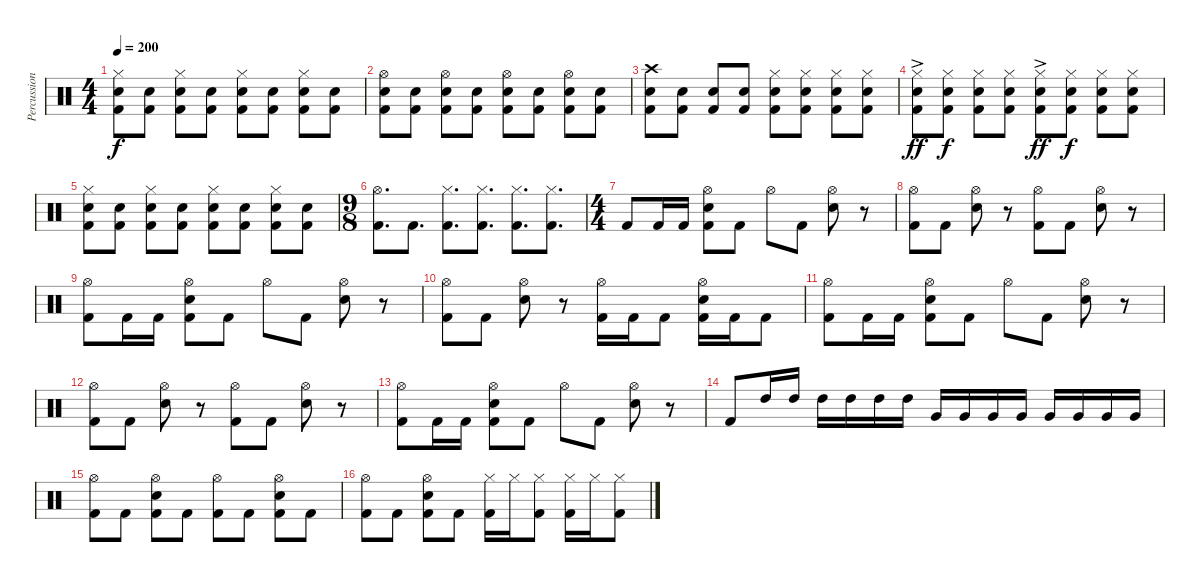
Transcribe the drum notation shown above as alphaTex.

\track ("Percussions" "Percussion") {instrument percussion}
\staff {score}
\articulation defaults
\ts (4 4)
\tempo 200
\clef neutral
\ks c
("Hi-Hat (closed)" "Electric Snare (hit)" "Kick (hit) 2").8{dy f} ("Electric Snare (hit)" "Kick (hit) 2").8 ("Hi-Hat (closed)" "Electric Snare (hit)" "Kick (hit) 2").8 ("Electric Snare (hit)" "Kick (hit) 2").8 ("Hi-Hat (closed)" "Electric Snare (hit)" "Kick (hit) 2").8 ("Electric Snare (hit)" "Kick (hit) 2").8 ("Hi-Hat (closed)" "Electric Snare (hit)" "Kick (hit) 2").8 ("Electric Snare (hit)" "Kick (hit) 2").8 |
("Hi-Hat (open)" "Electric Snare (hit)" "Kick (hit) 2").8 ("Electric Snare (hit)" "Kick (hit) 2").8 ("Hi-Hat (open)" "Electric Snare (hit)" "Kick (hit) 2").8 ("Electric Snare (hit)" "Kick (hit) 2").8 ("Hi-Hat (open)" "Electric Snare (hit)" "Kick (hit) 2").8 ("Electric Snare (hit)" "Kick (hit) 2").8 ("Hi-Hat (open)" "Electric Snare (hit)" "Kick (hit) 2").8 ("Electric Snare (hit)" "Kick (hit) 2").8 |
("Crash high (hit)" "Electric Snare (hit)" "Kick (hit) 2").8 ("Electric Snare (hit)" "Kick (hit) 2").8 ("Electric Snare (hit)" "Kick (hit) 2").8 ("Electric Snare (hit)" "Kick (hit) 2").8 ("Hi-Hat (closed)" "Electric Snare (hit)" "Kick (hit) 2").8 ("Hi-Hat (closed)" "Electric Snare (hit)" "Kick (hit) 2").8 ("Hi-Hat (closed)" "Electric Snare (hit)" "Kick (hit) 2").8 ("Hi-Hat (closed)" "Electric Snare (hit)" "Kick (hit) 2").8 |
("Hi-Hat (closed)"{ac} "Electric Snare (hit)" "Kick (hit) 2").8{dy ff} ("Hi-Hat (closed)" "Electric Snare (hit)" "Kick (hit) 2").8{dy f} ("Hi-Hat (closed)" "Electric Snare (hit)" "Kick (hit) 2").8 ("Hi-Hat (closed)" "Electric Snare (hit)" "Kick (hit) 2").8 ("Hi-Hat (closed)"{ac} "Electric Snare (hit)" "Kick (hit) 2").8{dy ff} ("Hi-Hat (closed)" "Electric Snare (hit)" "Kick (hit) 2").8{dy f} ("Hi-Hat (closed)" "Electric Snare (hit)" "Kick (hit) 2").8 ("Hi-Hat (closed)" "Electric Snare (hit)" "Kick (hit) 2").8 |
("Hi-Hat (closed)" "Electric Snare (hit)" "Kick (hit) 2").8 ("Electric Snare (hit)" "Kick (hit) 2").8 ("Hi-Hat (closed)" "Electric Snare (hit)" "Kick (hit) 2").8 ("Electric Snare (hit)" "Kick (hit) 2").8 ("Hi-Hat (closed)" "Electric Snare (hit)" "Kick (hit) 2").8 ("Electric Snare (hit)" "Kick (hit) 2").8 ("Hi-Hat (closed)" "Electric Snare (hit)" "Kick (hit) 2").8 ("Electric Snare (hit)" "Kick (hit) 2").8 |
\ts (9 8)
("Hi-Hat (open)" "Kick (hit) 2").8{d} "Kick (hit) 2".8{d} ("Hi-Hat (closed)" "Kick (hit) 2").8{d} ("Hi-Hat (closed)" "Kick (hit) 2").8{d} ("Hi-Hat (closed)" "Kick (hit) 2").8{d} ("Hi-Hat (closed)" "Kick (hit) 2").8{d} |
\ts (4 4)
"Kick (hit) 2".8 "Kick (hit) 2".16 "Kick (hit) 2".16 ("Hi-Hat (open)" "Electric Snare (hit)" "Kick (hit) 2").8 "Kick (hit) 2".8 "Hi-Hat (open)".8 "Kick (hit) 2".8 ("Hi-Hat (open)" "Electric Snare (hit)").8 r.8 |
("Hi-Hat (open)" "Kick (hit) 2").8 "Kick (hit) 2".8 ("Hi-Hat (open)" "Electric Snare (hit)").8 r.8 ("Hi-Hat (open)" "Kick (hit) 2").8 "Kick (hit) 2".8 ("Hi-Hat (open)" "Electric Snare (hit)").8 r.8 |
("Hi-Hat (open)" "Kick (hit) 2").8 "Kick (hit) 2".16 "Kick (hit) 2".16 ("Hi-Hat (open)" "Electric Snare (hit)" "Kick (hit) 2").8 "Kick (hit) 2".8 "Hi-Hat (open)".8 "Kick (hit) 2".8 ("Hi-Hat (open)" "Electric Snare (hit)").8 r.8 |
("Hi-Hat (open)" "Kick (hit) 2").8 "Kick (hit) 2".8 ("Hi-Hat (open)" "Electric Snare (hit)").8 r.8 ("Hi-Hat (open)" "Kick (hit) 2").16 "Kick (hit) 2".16 "Kick (hit) 2".8 ("Hi-Hat (open)" "Electric Snare (hit)" "Kick (hit) 2").16 "Kick (hit) 2".16 "Kick (hit) 2".8 |
("Hi-Hat (open)" "Kick (hit) 2").8 "Kick (hit) 2".16 "Kick (hit) 2".16 ("Hi-Hat (open)" "Electric Snare (hit)" "Kick (hit) 2").8 "Kick (hit) 2".8 "Hi-Hat (open)".8 "Kick (hit) 2".8 ("Hi-Hat (open)" "Electric Snare (hit)").8 r.8 |
("Hi-Hat (open)" "Kick (hit) 2").8 "Kick (hit) 2".8 ("Hi-Hat (open)" "Electric Snare (hit)").8 r.8 ("Hi-Hat (open)" "Kick (hit) 2").8 "Kick (hit) 2".8 ("Hi-Hat (open)" "Electric Snare (hit)").8 r.8 |
("Hi-Hat (open)" "Kick (hit) 2").8 "Kick (hit) 2".16 "Kick (hit) 2".16 ("Hi-Hat (open)" "Electric Snare (hit)" "Kick (hit) 2").8 "Kick (hit) 2".8 "Hi-Hat (open)".8 "Kick (hit) 2".8 ("Hi-Hat (open)" "Electric Snare (hit)").8 r.8 |
"Kick (hit) 2".8 "High Tom (hit)".16 "High Tom (hit)".16 "High Tom (hit)".16 "High Tom (hit)".16 "High Tom (hit)".16 "High Tom (hit)".16 "Very Low Tom (hit)".16 "Very Low Tom (hit)".16 "Very Low Tom (hit)".16 "Very Low Tom (hit)".16 "Very Low Tom (hit)".16 "Very Low Tom (hit)".16 "Very Low Tom (hit)".16 "Very Low Tom (hit)".16 |
("Hi-Hat (open)" "Kick (hit) 2").8 "Kick (hit) 2".8 ("Hi-Hat (open)" "Electric Snare (hit)" "Kick (hit) 2").8 "Kick (hit) 2".8 ("Hi-Hat (open)" "Kick (hit) 2").8 "Kick (hit) 2".8 ("Hi-Hat (open)" "Electric Snare (hit)" "Kick (hit) 2").8 "Kick (hit) 2".8 |
("Hi-Hat (open)" "Kick (hit) 2").8 "Kick (hit) 2".8 ("Hi-Hat (open)" "Electric Snare (hit)" "Kick (hit) 2").8 "Kick (hit) 2".8 ("Hi-Hat (closed)" "Kick (hit) 2").16 "Hi-Hat (closed)".16 ("Hi-Hat (closed)" "Kick (hit) 2").8 ("Hi-Hat (closed)" "Kick (hit) 2").16 "Hi-Hat (closed)".16 ("Hi-Hat (closed)" "Kick (hit) 2").8
